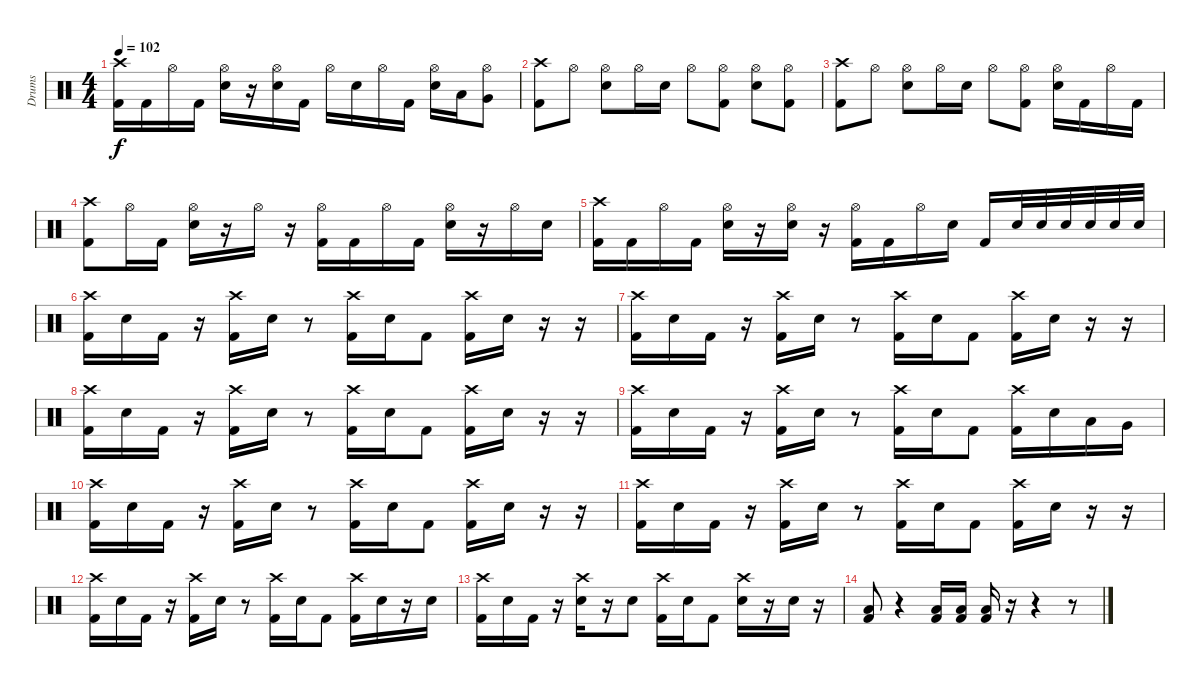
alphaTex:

\track ("Drums" "Drums") {instrument percussion}
\staff {score}
\articulation defaults
\ts (4 4)
\tempo 102
\clef neutral
\ks c
("Kick (hit) 2" "Crash high (hit)").16{dy f} "Kick (hit) 2".16 "Hi-Hat (open)".16 "Kick (hit) 2".16 ("Electric Snare (hit)" "Hi-Hat (open)").16 r.16 ("Electric Snare (hit)" "Hi-Hat (open)").16 "Kick (hit) 2".16 "Hi-Hat (open)".16 "Electric Snare (hit)".16 "Hi-Hat (open)".16 "Kick (hit) 2".16 ("Electric Snare (hit)" "Hi-Hat (open)").16 "Low Tom (hit)".16 ("Very Low Tom (hit)" "Hi-Hat (open)").8 |
("Kick (hit) 2" "Crash high (hit)").8 "Hi-Hat (open)".8 ("Electric Snare (hit)" "Hi-Hat (open)").8 "Hi-Hat (open)".16 "Electric Snare (hit)".16 "Hi-Hat (open)".8 ("Kick (hit) 2" "Hi-Hat (open)").8 ("Electric Snare (hit)" "Hi-Hat (open)").8 ("Kick (hit) 2" "Hi-Hat (open)").8 |
("Kick (hit) 2" "Crash high (hit)").8 "Hi-Hat (open)".8 ("Electric Snare (hit)" "Hi-Hat (open)").8 "Hi-Hat (open)".16 "Electric Snare (hit)".16 "Hi-Hat (open)".8 ("Kick (hit) 2" "Hi-Hat (open)").8 ("Electric Snare (hit)" "Hi-Hat (open)").16 "Kick (hit) 2".16 "Hi-Hat (open)".16 "Kick (hit) 2".16 |
("Kick (hit) 2" "Crash high (hit)").8 "Hi-Hat (open)".16 "Kick (hit) 2".16 ("Electric Snare (hit)" "Hi-Hat (open)").16 r.16 "Hi-Hat (open)".16 r.16 ("Kick (hit) 2" "Hi-Hat (open)").16 "Kick (hit) 2".16 "Hi-Hat (open)".16 "Kick (hit) 2".16 ("Electric Snare (hit)" "Hi-Hat (open)").16 r.16 "Hi-Hat (open)".16 "Electric Snare (hit)".16 |
("Kick (hit) 2" "Crash high (hit)").16 "Kick (hit) 2".16 "Hi-Hat (open)".16 "Kick (hit) 2".16 ("Electric Snare (hit)" "Hi-Hat (open)").16 r.16 ("Electric Snare (hit)" "Hi-Hat (open)").16 r.16 ("Kick (hit) 2" "Hi-Hat (open)").16 "Kick (hit) 2".16 "Hi-Hat (open)".16 "Electric Snare (hit)".16 "Kick (hit) 2".16 "Electric Snare (hit)".32 "Electric Snare (hit)".32 "Electric Snare (hit)".32 "Electric Snare (hit)".32 "Electric Snare (hit)".32 "Electric Snare (hit)".32 |
("Kick (hit) 2" "Crash high (hit)").16 "Electric Snare (hit)".16 "Kick (hit) 2".16 r.16 ("Kick (hit) 2" "Crash high (hit)").16 "Electric Snare (hit)".16 r.8 ("Kick (hit) 2" "Crash high (hit)").16 "Electric Snare (hit)".16 "Kick (hit) 2".8 ("Kick (hit) 2" "Crash high (hit)").16 "Electric Snare (hit)".16 r.16 r.16 |
("Kick (hit) 2" "Crash high (hit)").16 "Electric Snare (hit)".16 "Kick (hit) 2".16 r.16 ("Kick (hit) 2" "Crash high (hit)").16 "Electric Snare (hit)".16 r.8 ("Kick (hit) 2" "Crash high (hit)").16 "Electric Snare (hit)".16 "Kick (hit) 2".8 ("Kick (hit) 2" "Crash high (hit)").16 "Electric Snare (hit)".16 r.16 r.16 |
("Kick (hit) 2" "Crash high (hit)").16 "Electric Snare (hit)".16 "Kick (hit) 2".16 r.16 ("Kick (hit) 2" "Crash high (hit)").16 "Electric Snare (hit)".16 r.8 ("Kick (hit) 2" "Crash high (hit)").16 "Electric Snare (hit)".16 "Kick (hit) 2".8 ("Kick (hit) 2" "Crash high (hit)").16 "Electric Snare (hit)".16 r.16 r.16 |
("Kick (hit) 2" "Crash high (hit)").16 "Electric Snare (hit)".16 "Kick (hit) 2".16 r.16 ("Kick (hit) 2" "Crash high (hit)").16 "Electric Snare (hit)".16 r.8 ("Kick (hit) 2" "Crash high (hit)").16 "Electric Snare (hit)".16 "Kick (hit) 2".8 ("Kick (hit) 2" "Crash high (hit)").16 "Electric Snare (hit)".16 "Low Tom (hit)".16 "Very Low Tom (hit)".16 |
("Kick (hit) 2" "Crash high (hit)").16 "Electric Snare (hit)".16 "Kick (hit) 2".16 r.16 ("Kick (hit) 2" "Crash high (hit)").16 "Electric Snare (hit)".16 r.8 ("Kick (hit) 2" "Crash high (hit)").16 "Electric Snare (hit)".16 "Kick (hit) 2".8 ("Kick (hit) 2" "Crash high (hit)").16 "Electric Snare (hit)".16 r.16 r.16 |
("Kick (hit) 2" "Crash high (hit)").16 "Electric Snare (hit)".16 "Kick (hit) 2".16 r.16 ("Kick (hit) 2" "Crash high (hit)").16 "Electric Snare (hit)".16 r.8 ("Kick (hit) 2" "Crash high (hit)").16 "Electric Snare (hit)".16 "Kick (hit) 2".8 ("Kick (hit) 2" "Crash high (hit)").16 "Electric Snare (hit)".16 r.16 r.16 |
("Kick (hit) 2" "Crash high (hit)").16 "Electric Snare (hit)".16 "Kick (hit) 2".16 r.16 ("Kick (hit) 2" "Crash high (hit)").16 "Electric Snare (hit)".16 r.8 ("Kick (hit) 2" "Crash high (hit)").16 "Electric Snare (hit)".16 "Kick (hit) 2".8 ("Kick (hit) 2" "Crash high (hit)").16 "Electric Snare (hit)".16 r.16 "Electric Snare (hit)".16 |
("Kick (hit) 2" "Crash high (hit)").16 "Electric Snare (hit)".16 "Kick (hit) 2".16 r.16 ("Electric Snare (hit)" "Crash high (hit)").16 r.16 "Electric Snare (hit)".8 ("Kick (hit) 2" "Crash high (hit)").16 "Electric Snare (hit)".16 "Kick (hit) 2".8 ("Electric Snare (hit)" "Crash high (hit)").16 r.16 "Electric Snare (hit)".16 r.16 |
("Kick (hit) 2" "Low Tom (hit)").8 r.4 ("Kick (hit) 2" "Low Tom (hit)").16 ("Kick (hit) 2" "Low Tom (hit)").16 ("Kick (hit) 2" "Low Tom (hit)").16 r.16 r.4 r.8
